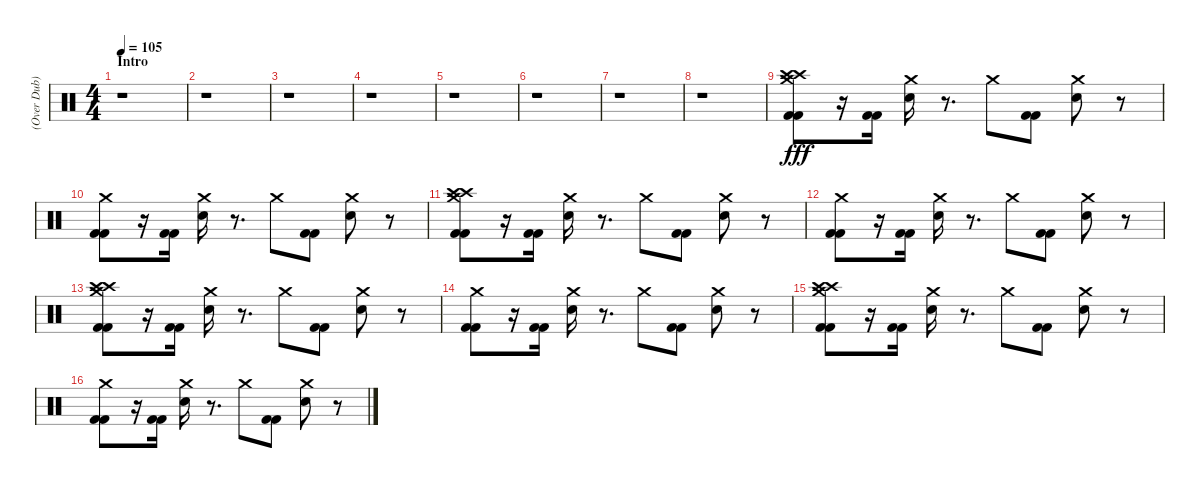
\track ("(Over Dub)" "(Over Dub)") {instrument percussion}
\staff {score}
\articulation defaults
\ts (4 4)
\section ("" "Intro")
\tempo 105
\clef neutral
\ks c
r.1{dy fff} |
r.1 |
r.1 |
r.1 |
r.1 |
r.1 |
r.1 |
r.1 |
("Crash high (hit)" "Crash high (hit)" "Crash medium (hit)" "Kick (hit) 2" "Kick (hit) 2").8 r.16 ("Kick (hit) 2" "Kick (hit) 2").16 ("Crash medium (hit)" "Electric Snare (hit)").16 r.8{d} "Crash medium (hit)".8 ("Kick (hit) 2" "Kick (hit) 2").8 ("Crash medium (hit)" "Electric Snare (hit)").8 r.8 |
("Crash medium (hit)" "Kick (hit) 2" "Kick (hit) 2").8 r.16 ("Kick (hit) 2" "Kick (hit) 2").16 ("Crash medium (hit)" "Electric Snare (hit)").16 r.8{d} "Crash medium (hit)".8 ("Kick (hit) 2" "Kick (hit) 2").8 ("Crash medium (hit)" "Electric Snare (hit)").8 r.8 |
("Crash high (hit)" "Crash high (hit)" "Crash medium (hit)" "Kick (hit) 2" "Kick (hit) 2").8 r.16 ("Kick (hit) 2" "Kick (hit) 2").16 ("Crash medium (hit)" "Electric Snare (hit)").16 r.8{d} "Crash medium (hit)".8 ("Kick (hit) 2" "Kick (hit) 2").8 ("Crash medium (hit)" "Electric Snare (hit)").8 r.8 |
("Crash medium (hit)" "Kick (hit) 2" "Kick (hit) 2").8 r.16 ("Kick (hit) 2" "Kick (hit) 2").16 ("Crash medium (hit)" "Electric Snare (hit)").16 r.8{d} "Crash medium (hit)".8 ("Kick (hit) 2" "Kick (hit) 2").8 ("Crash medium (hit)" "Electric Snare (hit)").8 r.8 |
("Crash high (hit)" "Crash high (hit)" "Crash medium (hit)" "Kick (hit) 2" "Kick (hit) 2").8 r.16 ("Kick (hit) 2" "Kick (hit) 2").16 ("Crash medium (hit)" "Electric Snare (hit)").16 r.8{d} "Crash medium (hit)".8 ("Kick (hit) 2" "Kick (hit) 2").8 ("Crash medium (hit)" "Electric Snare (hit)").8 r.8 |
("Crash medium (hit)" "Kick (hit) 2" "Kick (hit) 2").8 r.16 ("Kick (hit) 2" "Kick (hit) 2").16 ("Crash medium (hit)" "Electric Snare (hit)").16 r.8{d} "Crash medium (hit)".8 ("Kick (hit) 2" "Kick (hit) 2").8 ("Crash medium (hit)" "Electric Snare (hit)").8 r.8 |
("Crash high (hit)" "Crash high (hit)" "Crash medium (hit)" "Kick (hit) 2" "Kick (hit) 2").8 r.16 ("Kick (hit) 2" "Kick (hit) 2").16 ("Crash medium (hit)" "Electric Snare (hit)").16 r.8{d} "Crash medium (hit)".8 ("Kick (hit) 2" "Kick (hit) 2").8 ("Crash medium (hit)" "Electric Snare (hit)").8 r.8 |
("Crash medium (hit)" "Kick (hit) 2" "Kick (hit) 2").8 r.16 ("Kick (hit) 2" "Kick (hit) 2").16 ("Crash medium (hit)" "Electric Snare (hit)").16 r.8{d} "Crash medium (hit)".8 ("Kick (hit) 2" "Kick (hit) 2").8 ("Crash medium (hit)" "Electric Snare (hit)").8 r.8
